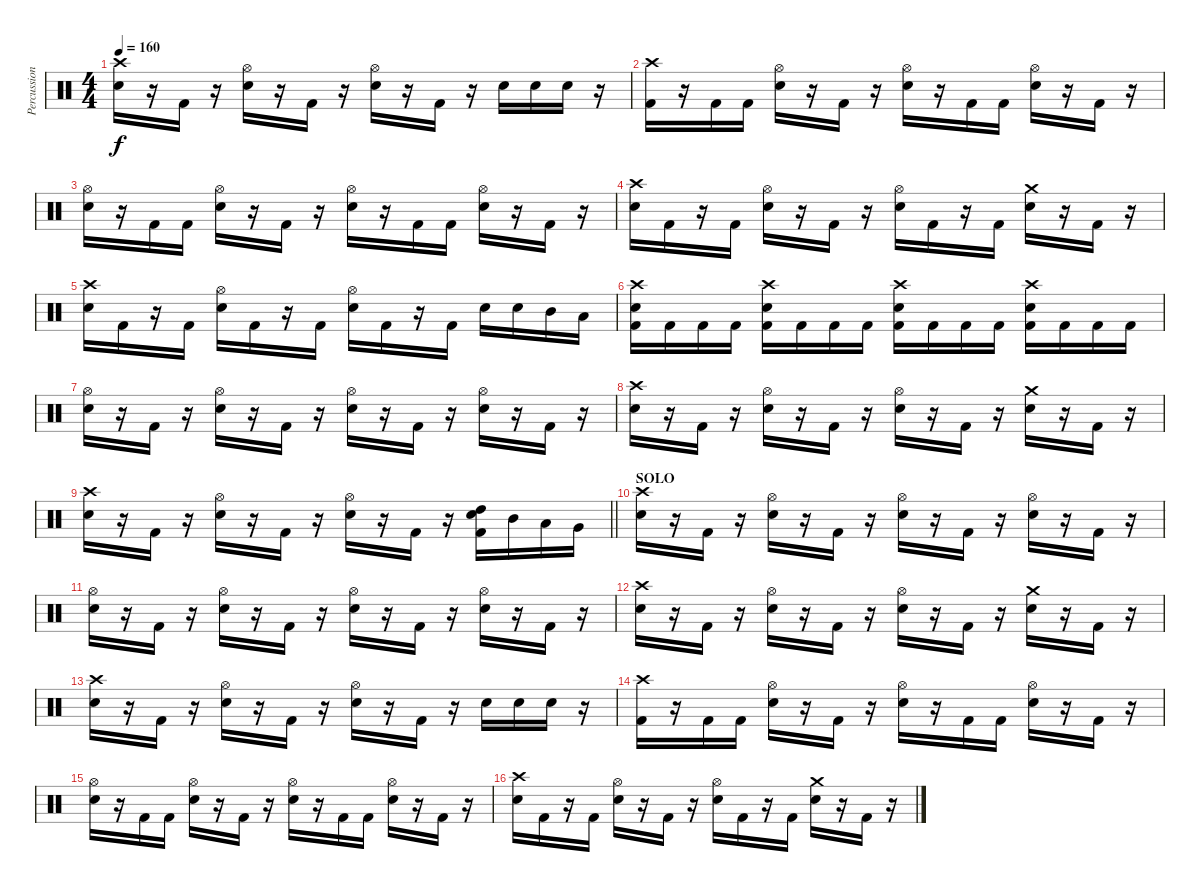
\track ("Percussion" "Percussion") {instrument percussion}
\staff {score}
\articulation defaults
\ts (4 4)
\tempo 160
\clef neutral
\ks c
("Crash high (hit)" "Snare (hit) 2").16{dy f} r.16 "Kick (hit) 2".16 r.16 ("Hi-Hat (open)" "Snare (hit) 2").16 r.16 "Kick (hit) 2".16 r.16 ("Hi-Hat (open)" "Snare (hit) 2").16 r.16 "Kick (hit) 2".16 r.16 "Snare (hit) 2".16 "Snare (hit) 2".16 "Snare (hit) 2".16 r.16 |
("Crash high (hit)" "Kick (hit) 2").16 r.16 "Kick (hit) 2".16 "Kick (hit) 2".16 ("Hi-Hat (open)" "Snare (hit) 2").16 r.16 "Kick (hit) 2".16 r.16 ("Hi-Hat (open)" "Snare (hit) 2").16 r.16 "Kick (hit) 2".16 "Kick (hit) 2".16 ("Hi-Hat (open)" "Snare (hit) 2").16 r.16 "Kick (hit) 2".16 r.16 |
("Hi-Hat (open)" "Snare (hit) 2").16 r.16 "Kick (hit) 2".16 "Kick (hit) 2".16 ("Hi-Hat (open)" "Snare (hit) 2").16 r.16 "Kick (hit) 2".16 r.16 ("Hi-Hat (open)" "Snare (hit) 2").16 r.16 "Kick (hit) 2".16 "Kick (hit) 2".16 ("Hi-Hat (open)" "Snare (hit) 2").16 r.16 "Kick (hit) 2".16 r.16 |
("Crash high (hit)" "Snare (hit) 2").16 "Kick (hit) 2".16 r.16 "Kick (hit) 2".16 ("Hi-Hat (open)" "Snare (hit) 2").16 r.16 "Kick (hit) 2".16 r.16 ("Hi-Hat (open)" "Snare (hit) 2").16 "Kick (hit) 2".16 r.16 "Kick (hit) 2".16 ("Crash medium (hit)" "Snare (hit) 2").16 r.16 "Kick (hit) 2".16 r.16 |
("Crash high (hit)" "Snare (hit) 2").16 "Kick (hit) 2".16 r.16 "Kick (hit) 2".16 ("Hi-Hat (open)" "Snare (hit) 2").16 "Kick (hit) 2".16 r.16 "Kick (hit) 2".16 ("Hi-Hat (open)" "Snare (hit) 2").16 "Kick (hit) 2".16 r.16 "Kick (hit) 2".16 "Snare (hit) 2".16 "Snare (hit) 2".16 "Mid Tom (hit)".16 "Low Tom (hit)".16 |
("Crash high (hit)" "Snare (hit) 2" "Kick (hit) 2").16 "Kick (hit) 2".16 "Kick (hit) 2".16 "Kick (hit) 2".16 ("Crash high (hit)" "Snare (hit) 2" "Kick (hit) 2").16 "Kick (hit) 2".16 "Kick (hit) 2".16 "Kick (hit) 2".16 ("Crash high (hit)" "Snare (hit) 2" "Kick (hit) 2").16 "Kick (hit) 2".16 "Kick (hit) 2".16 "Kick (hit) 2".16 ("Crash high (hit)" "Snare (hit) 2" "Kick (hit) 2").16 "Kick (hit) 2".16 "Kick (hit) 2".16 "Kick (hit) 2".16 |
("Hi-Hat (open)" "Snare (hit) 2").16 r.16 "Kick (hit) 2".16 r.16 ("Hi-Hat (open)" "Snare (hit) 2").16 r.16 "Kick (hit) 2".16 r.16 ("Hi-Hat (open)" "Snare (hit) 2").16 r.16 "Kick (hit) 2".16 r.16 ("Hi-Hat (open)" "Snare (hit) 2").16 r.16 "Kick (hit) 2".16 r.16 |
("Crash high (hit)" "Snare (hit) 2").16 r.16 "Kick (hit) 2".16 r.16 ("Hi-Hat (open)" "Snare (hit) 2").16 r.16 "Kick (hit) 2".16 r.16 ("Hi-Hat (open)" "Snare (hit) 2").16 r.16 "Kick (hit) 2".16 r.16 ("Crash medium (hit)" "Snare (hit) 2").16 r.16 "Kick (hit) 2".16 r.16 |
\barLineRight lightlight
("Crash high (hit)" "Snare (hit) 2").16 r.16 "Kick (hit) 2".16 r.16 ("Hi-Hat (open)" "Snare (hit) 2").16 r.16 "Kick (hit) 2".16 r.16 ("Hi-Hat (open)" "Snare (hit) 2").16 r.16 "Kick (hit) 2".16 r.16 ("High Tom (hit)" "Snare (hit) 2" "Kick (hit) 2").16 "Mid Tom (hit)".16 "Low Tom (hit)".16 "Very Low Tom (hit)".16 |
\section ("" "SOLO")
("Crash high (hit)" "Snare (hit) 2").16 r.16 "Kick (hit) 2".16 r.16 ("Hi-Hat (open)" "Snare (hit) 2").16 r.16 "Kick (hit) 2".16 r.16 ("Hi-Hat (open)" "Snare (hit) 2").16 r.16 "Kick (hit) 2".16 r.16 ("Hi-Hat (open)" "Snare (hit) 2").16 r.16 "Kick (hit) 2".16 r.16 |
("Hi-Hat (open)" "Snare (hit) 2").16 r.16 "Kick (hit) 2".16 r.16 ("Hi-Hat (open)" "Snare (hit) 2").16 r.16 "Kick (hit) 2".16 r.16 ("Hi-Hat (open)" "Snare (hit) 2").16 r.16 "Kick (hit) 2".16 r.16 ("Hi-Hat (open)" "Snare (hit) 2").16 r.16 "Kick (hit) 2".16 r.16 |
("Crash high (hit)" "Snare (hit) 2").16 r.16 "Kick (hit) 2".16 r.16 ("Hi-Hat (open)" "Snare (hit) 2").16 r.16 "Kick (hit) 2".16 r.16 ("Hi-Hat (open)" "Snare (hit) 2").16 r.16 "Kick (hit) 2".16 r.16 ("Crash medium (hit)" "Snare (hit) 2").16 r.16 "Kick (hit) 2".16 r.16 |
("Crash high (hit)" "Snare (hit) 2").16 r.16 "Kick (hit) 2".16 r.16 ("Hi-Hat (open)" "Snare (hit) 2").16 r.16 "Kick (hit) 2".16 r.16 ("Hi-Hat (open)" "Snare (hit) 2").16 r.16 "Kick (hit) 2".16 r.16 "Snare (hit) 2".16 "Snare (hit) 2".16 "Snare (hit) 2".16 r.16 |
("Crash high (hit)" "Kick (hit) 2").16 r.16 "Kick (hit) 2".16 "Kick (hit) 2".16 ("Hi-Hat (open)" "Snare (hit) 2").16 r.16 "Kick (hit) 2".16 r.16 ("Hi-Hat (open)" "Snare (hit) 2").16 r.16 "Kick (hit) 2".16 "Kick (hit) 2".16 ("Hi-Hat (open)" "Snare (hit) 2").16 r.16 "Kick (hit) 2".16 r.16 |
("Hi-Hat (open)" "Snare (hit) 2").16 r.16 "Kick (hit) 2".16 "Kick (hit) 2".16 ("Hi-Hat (open)" "Snare (hit) 2").16 r.16 "Kick (hit) 2".16 r.16 ("Hi-Hat (open)" "Snare (hit) 2").16 r.16 "Kick (hit) 2".16 "Kick (hit) 2".16 ("Hi-Hat (open)" "Snare (hit) 2").16 r.16 "Kick (hit) 2".16 r.16 |
("Crash high (hit)" "Snare (hit) 2").16 "Kick (hit) 2".16 r.16 "Kick (hit) 2".16 ("Hi-Hat (open)" "Snare (hit) 2").16 r.16 "Kick (hit) 2".16 r.16 ("Hi-Hat (open)" "Snare (hit) 2").16 "Kick (hit) 2".16 r.16 "Kick (hit) 2".16 ("Crash medium (hit)" "Snare (hit) 2").16 r.16 "Kick (hit) 2".16 r.16
